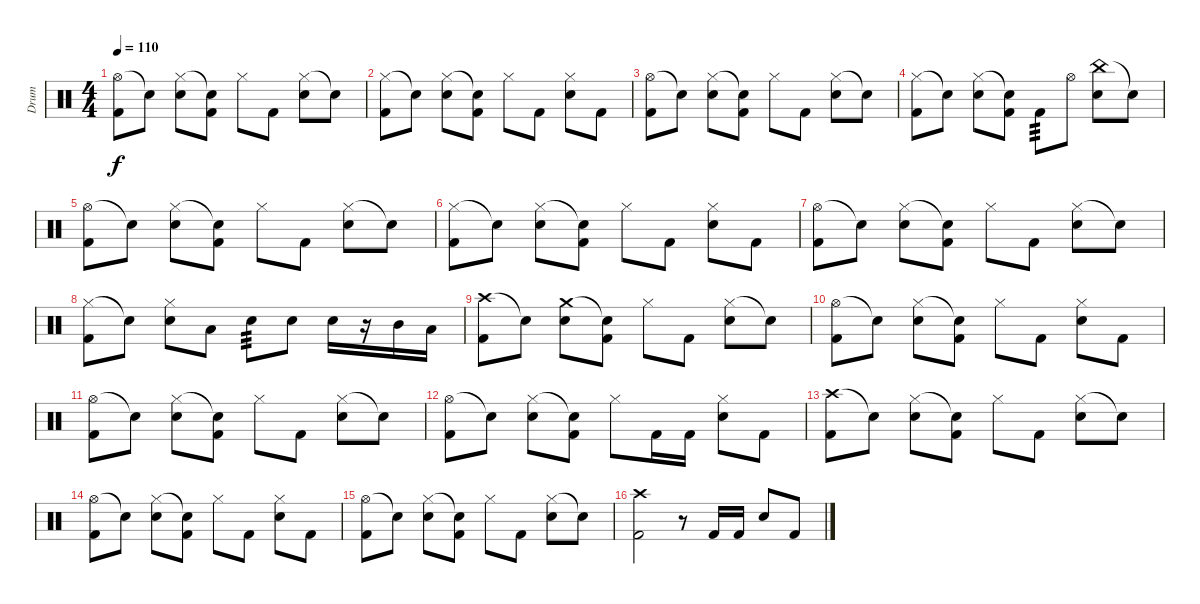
\track ("Drum" "Drum") {instrument percussion}
\staff {score}
\articulation defaults
\ts (4 4)
\tempo 110
\clef neutral
\ks c
("Hi-Hat (open)" "Kick (hit) 2").8{dy f} "Snare (hit)"{t}.8 ("Hi-Hat (closed)" "Electric Snare (hit)").8 ("Snare (hit)"{t} "Kick (hit) 2").8 "Hi-Hat (closed)".8 "Kick (hit) 2".8 ("Hi-Hat (closed)" "Electric Snare (hit)").8 "Snare (hit)"{t}.8 |
("Hi-Hat (closed)" "Kick (hit) 2").8 "Snare (hit)"{t}.8 ("Hi-Hat (closed)" "Electric Snare (hit)").8 ("Snare (hit)"{t} "Kick (hit) 2").8 "Hi-Hat (closed)".8 "Kick (hit) 2".8 ("Hi-Hat (closed)" "Electric Snare (hit)").8 "Kick (hit) 2".8 |
("Hi-Hat (open)" "Kick (hit) 2").8 "Snare (hit)"{t}.8 ("Hi-Hat (closed)" "Electric Snare (hit)").8 ("Snare (hit)"{t} "Kick (hit) 2").8 "Hi-Hat (closed)".8 "Kick (hit) 2".8 ("Hi-Hat (closed)" "Electric Snare (hit)").8 "Snare (hit)"{t}.8 |
("Hi-Hat (closed)" "Kick (hit) 2").8 "Snare (hit)"{t}.8 ("Hi-Hat (closed)" "Electric Snare (hit)").8 ("Snare (hit)"{t} "Kick (hit) 2").8 "Kick (hit) 2".8{tp 3} "Hi-Hat (open)".8 ("China (hit)" "Electric Snare (hit)").8 "Snare (hit)"{t}.8 |
("Hi-Hat (open)" "Kick (hit) 2").8 "Snare (hit)"{t}.8 ("Hi-Hat (closed)" "Electric Snare (hit)").8 ("Snare (hit)"{t} "Kick (hit) 2").8 "Hi-Hat (closed)".8 "Kick (hit) 2".8 ("Hi-Hat (closed)" "Electric Snare (hit)").8 "Snare (hit)"{t}.8 |
("Hi-Hat (closed)" "Kick (hit) 2").8 "Snare (hit)"{t}.8 ("Hi-Hat (closed)" "Electric Snare (hit)").8 ("Snare (hit)"{t} "Kick (hit) 2").8 "Hi-Hat (closed)".8 "Kick (hit) 2".8 ("Hi-Hat (closed)" "Electric Snare (hit)").8 "Kick (hit) 2".8 |
("Hi-Hat (open)" "Kick (hit) 2").8 "Snare (hit)"{t}.8 ("Hi-Hat (closed)" "Electric Snare (hit)").8 ("Snare (hit)"{t} "Kick (hit) 2").8 "Hi-Hat (closed)".8 "Kick (hit) 2".8 ("Hi-Hat (closed)" "Electric Snare (hit)").8 "Snare (hit)"{t}.8 |
("Hi-Hat (closed)" "Kick (hit) 2").8 "Snare (hit)"{t}.8 ("Hi-Hat (closed)" "Electric Snare (hit)").8 "Low Tom (hit)".8 "Electric Snare (hit)".8{tp 3} "Electric Snare (hit)".8 "Electric Snare (hit)".16 r.16 "Mid Tom (hit)".16 "Low Tom (hit)".16 |
("Crash high (hit)" "Kick (hit) 2").8 "Snare (hit)"{t}.8 ("Crash medium (hit)" "Electric Snare (hit)").8 ("Snare (hit)"{t} "Kick (hit) 2").8 "Hi-Hat (closed)".8 "Kick (hit) 2".8 ("Hi-Hat (closed)" "Electric Snare (hit)").8 "Snare (hit)"{t}.8 |
("Hi-Hat (open)" "Kick (hit) 2").8 "Snare (hit)"{t}.8 ("Hi-Hat (closed)" "Electric Snare (hit)").8 ("Snare (hit)"{t} "Kick (hit) 2").8 "Hi-Hat (closed)".8 "Kick (hit) 2".8 ("Hi-Hat (closed)" "Electric Snare (hit)").8 "Kick (hit) 2".8 |
("Hi-Hat (open)" "Kick (hit) 2").8 "Snare (hit)"{t}.8 ("Hi-Hat (closed)" "Electric Snare (hit)").8 ("Snare (hit)"{t} "Kick (hit) 2").8 "Hi-Hat (closed)".8 "Kick (hit) 2".8 ("Hi-Hat (closed)" "Electric Snare (hit)").8 "Snare (hit)"{t}.8 |
("Hi-Hat (open)" "Kick (hit) 2").8 "Snare (hit)"{t}.8 ("Hi-Hat (closed)" "Electric Snare (hit)").8 ("Snare (hit)"{t} "Kick (hit) 2").8 "Hi-Hat (closed)".8 "Kick (hit) 2".16 "Kick (hit) 2".16 ("Hi-Hat (closed)" "Electric Snare (hit)").8 "Kick (hit) 2".8 |
("Crash high (hit)" "Kick (hit) 2").8 "Snare (hit)"{t}.8 ("Hi-Hat (closed)" "Electric Snare (hit)").8 ("Snare (hit)"{t} "Kick (hit) 2").8 "Hi-Hat (closed)".8 "Kick (hit) 2".8 ("Hi-Hat (closed)" "Electric Snare (hit)").8 "Snare (hit)"{t}.8 |
("Hi-Hat (open)" "Kick (hit) 2").8 "Snare (hit)"{t}.8 ("Hi-Hat (closed)" "Electric Snare (hit)").8 ("Snare (hit)"{t} "Kick (hit) 2").8 "Hi-Hat (closed)".8 "Kick (hit) 2".8 ("Hi-Hat (closed)" "Electric Snare (hit)").8 "Kick (hit) 2".8 |
("Hi-Hat (open)" "Kick (hit) 2").8 "Snare (hit)"{t}.8 ("Hi-Hat (closed)" "Electric Snare (hit)").8 ("Snare (hit)"{t} "Kick (hit) 2").8 "Hi-Hat (closed)".8 "Kick (hit) 2".8 ("Hi-Hat (closed)" "Electric Snare (hit)").8 "Snare (hit)"{t}.8 |
("Crash high (hit)" "Kick (hit) 2").2 r.8 "Kick (hit) 2".16 "Kick (hit) 2".16 "Electric Snare (hit)".8 "Kick (hit) 2".8
